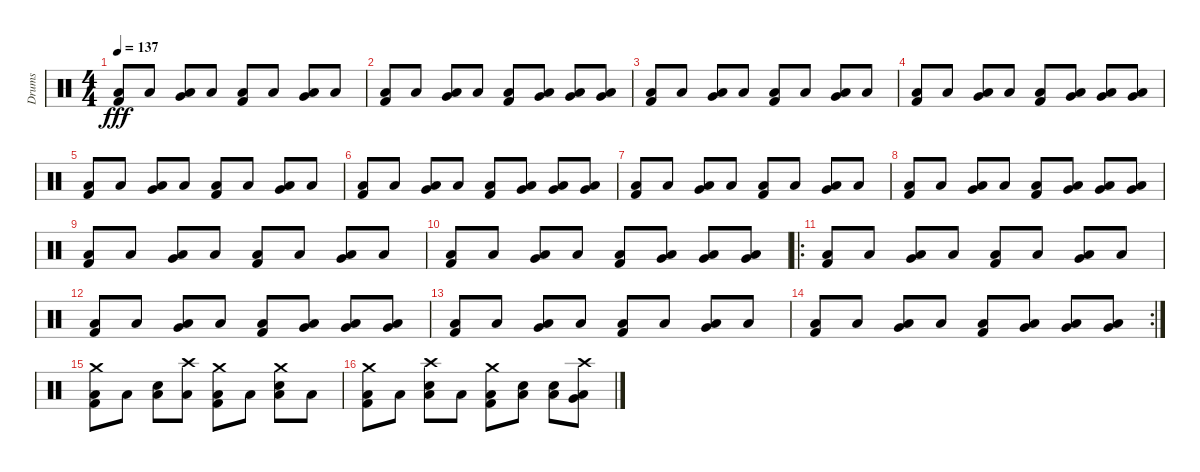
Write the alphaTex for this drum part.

\track ("Drums" "Drums") {instrument percussion}
\staff {score}
\articulation defaults
\ts (4 4)
\tempo 137
\clef neutral
\ks c
("Low Floor Tom (hit)" "Kick (hit) 2").8{dy fff} "Low Floor Tom (hit)".8 ("Very Low Tom (hit)" "Low Floor Tom (hit)").8 "Low Floor Tom (hit)".8 ("Low Floor Tom (hit)" "Kick (hit) 2").8 "Low Floor Tom (hit)".8 ("Very Low Tom (hit)" "Low Floor Tom (hit)").8 "Low Floor Tom (hit)".8 |
("Low Floor Tom (hit)" "Kick (hit) 2").8 "Low Floor Tom (hit)".8 ("Very Low Tom (hit)" "Low Floor Tom (hit)").8 "Low Floor Tom (hit)".8 ("Low Floor Tom (hit)" "Kick (hit) 2").8 ("Very Low Tom (hit)" "Low Floor Tom (hit)").8 ("Very Low Tom (hit)" "Low Floor Tom (hit)").8 ("Very Low Tom (hit)" "Low Floor Tom (hit)").8 |
("Low Floor Tom (hit)" "Kick (hit) 2").8 "Low Floor Tom (hit)".8 ("Very Low Tom (hit)" "Low Floor Tom (hit)").8 "Low Floor Tom (hit)".8 ("Low Floor Tom (hit)" "Kick (hit) 2").8 "Low Floor Tom (hit)".8 ("Very Low Tom (hit)" "Low Floor Tom (hit)").8 "Low Floor Tom (hit)".8 |
("Low Floor Tom (hit)" "Kick (hit) 2").8 "Low Floor Tom (hit)".8 ("Very Low Tom (hit)" "Low Floor Tom (hit)").8 "Low Floor Tom (hit)".8 ("Low Floor Tom (hit)" "Kick (hit) 2").8 ("Very Low Tom (hit)" "Low Floor Tom (hit)").8 ("Very Low Tom (hit)" "Low Floor Tom (hit)").8 ("Very Low Tom (hit)" "Low Floor Tom (hit)").8 |
("Low Floor Tom (hit)" "Kick (hit) 2").8 "Low Floor Tom (hit)".8 ("Very Low Tom (hit)" "Low Floor Tom (hit)").8 "Low Floor Tom (hit)".8 ("Low Floor Tom (hit)" "Kick (hit) 2").8 "Low Floor Tom (hit)".8 ("Very Low Tom (hit)" "Low Floor Tom (hit)").8 "Low Floor Tom (hit)".8 |
("Low Floor Tom (hit)" "Kick (hit) 2").8 "Low Floor Tom (hit)".8 ("Very Low Tom (hit)" "Low Floor Tom (hit)").8 "Low Floor Tom (hit)".8 ("Low Floor Tom (hit)" "Kick (hit) 2").8 ("Very Low Tom (hit)" "Low Floor Tom (hit)").8 ("Very Low Tom (hit)" "Low Floor Tom (hit)").8 ("Very Low Tom (hit)" "Low Floor Tom (hit)").8 |
("Low Floor Tom (hit)" "Kick (hit) 2").8 "Low Floor Tom (hit)".8 ("Very Low Tom (hit)" "Low Floor Tom (hit)").8 "Low Floor Tom (hit)".8 ("Low Floor Tom (hit)" "Kick (hit) 2").8 "Low Floor Tom (hit)".8 ("Very Low Tom (hit)" "Low Floor Tom (hit)").8 "Low Floor Tom (hit)".8 |
("Low Floor Tom (hit)" "Kick (hit) 2").8 "Low Floor Tom (hit)".8 ("Very Low Tom (hit)" "Low Floor Tom (hit)").8 "Low Floor Tom (hit)".8 ("Low Floor Tom (hit)" "Kick (hit) 2").8 ("Very Low Tom (hit)" "Low Floor Tom (hit)").8 ("Very Low Tom (hit)" "Low Floor Tom (hit)").8 ("Very Low Tom (hit)" "Low Floor Tom (hit)").8 |
("Low Floor Tom (hit)" "Kick (hit) 2").8 "Low Floor Tom (hit)".8 ("Very Low Tom (hit)" "Low Floor Tom (hit)").8 "Low Floor Tom (hit)".8 ("Low Floor Tom (hit)" "Kick (hit) 2").8 "Low Floor Tom (hit)".8 ("Very Low Tom (hit)" "Low Floor Tom (hit)").8 "Low Floor Tom (hit)".8 |
("Low Floor Tom (hit)" "Kick (hit) 2").8 "Low Floor Tom (hit)".8 ("Very Low Tom (hit)" "Low Floor Tom (hit)").8 "Low Floor Tom (hit)".8 ("Low Floor Tom (hit)" "Kick (hit) 2").8 ("Very Low Tom (hit)" "Low Floor Tom (hit)").8 ("Very Low Tom (hit)" "Low Floor Tom (hit)").8 ("Very Low Tom (hit)" "Low Floor Tom (hit)").8 |
\ro
("Low Floor Tom (hit)" "Kick (hit) 2").8 "Low Floor Tom (hit)".8 ("Very Low Tom (hit)" "Low Floor Tom (hit)").8 "Low Floor Tom (hit)".8 ("Low Floor Tom (hit)" "Kick (hit) 2").8 "Low Floor Tom (hit)".8 ("Very Low Tom (hit)" "Low Floor Tom (hit)").8 "Low Floor Tom (hit)".8 |
("Low Floor Tom (hit)" "Kick (hit) 2").8 "Low Floor Tom (hit)".8 ("Very Low Tom (hit)" "Low Floor Tom (hit)").8 "Low Floor Tom (hit)".8 ("Low Floor Tom (hit)" "Kick (hit) 2").8 ("Very Low Tom (hit)" "Low Floor Tom (hit)").8 ("Very Low Tom (hit)" "Low Floor Tom (hit)").8 ("Very Low Tom (hit)" "Low Floor Tom (hit)").8 |
("Low Floor Tom (hit)" "Kick (hit) 2").8 "Low Floor Tom (hit)".8 ("Very Low Tom (hit)" "Low Floor Tom (hit)").8 "Low Floor Tom (hit)".8 ("Low Floor Tom (hit)" "Kick (hit) 2").8 "Low Floor Tom (hit)".8 ("Very Low Tom (hit)" "Low Floor Tom (hit)").8 "Low Floor Tom (hit)".8 |
\rc 2
("Low Floor Tom (hit)" "Kick (hit) 2").8 "Low Floor Tom (hit)".8 ("Very Low Tom (hit)" "Low Floor Tom (hit)").8 "Low Floor Tom (hit)".8 ("Low Floor Tom (hit)" "Kick (hit) 2").8 ("Very Low Tom (hit)" "Low Floor Tom (hit)").8 ("Very Low Tom (hit)" "Low Floor Tom (hit)").8 ("Very Low Tom (hit)" "Low Floor Tom (hit)").8 |
("Crash medium (hit)" "Low Floor Tom (hit)" "Kick (hit) 2").8 "Low Floor Tom (hit)".8 ("Electric Snare (hit)" "Low Floor Tom (hit)").8 ("Low Floor Tom (hit)" "Crash high (hit)").8 ("Crash medium (hit)" "Low Floor Tom (hit)" "Kick (hit) 2").8 "Low Floor Tom (hit)".8 ("Electric Snare (hit)" "Low Floor Tom (hit)" "Crash medium (hit)").8 "Low Floor Tom (hit)".8 |
("Crash medium (hit)" "Low Floor Tom (hit)" "Kick (hit) 2").8 "Low Floor Tom (hit)".8 ("Electric Snare (hit)" "Low Floor Tom (hit)" "Crash high (hit)").8 "Low Floor Tom (hit)".8 ("Crash medium (hit)" "Low Floor Tom (hit)" "Kick (hit) 2").8 ("Electric Snare (hit)" "Low Floor Tom (hit)").8 ("Electric Snare (hit)" "Low Floor Tom (hit)").8 ("Very Low Tom (hit)" "Low Floor Tom (hit)" "Crash high (hit)").8
